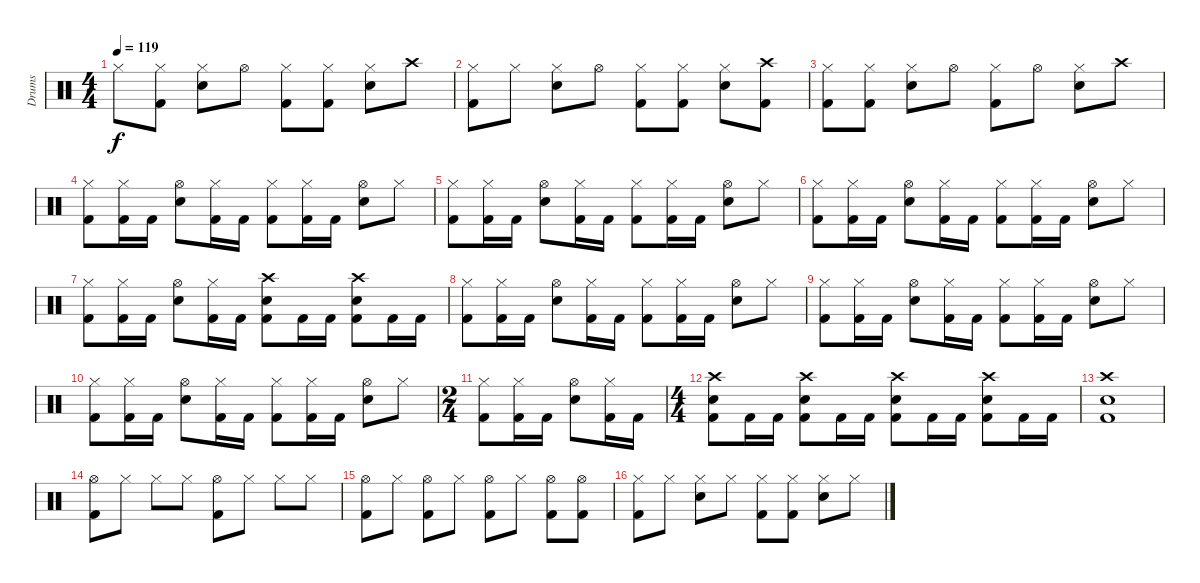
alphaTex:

\track ("Drums" "Drums") {instrument percussion}
\staff {score}
\articulation defaults
\ts (4 4)
\tempo 119
\clef neutral
\ks c "Hi-Hat (closed)".8{dy f}
("Hi-Hat (closed)" "Kick (hit) 2").8 ("Hi-Hat (closed)" "Snare (hit) 2").8 "Hi-Hat (open)".8 ("Hi-Hat (closed)" "Kick (hit) 2").8 ("Hi-Hat (closed)" "Kick (hit) 2").8 ("Hi-Hat (closed)" "Snare (hit) 2").8 "Crash high (hit)".8 |
("Hi-Hat (closed)" "Kick (hit) 2").8 "Hi-Hat (closed)".8 ("Hi-Hat (closed)" "Snare (hit) 2").8 "Hi-Hat (open)".8 ("Hi-Hat (closed)" "Kick (hit) 2").8 ("Hi-Hat (closed)" "Kick (hit) 2").8 ("Hi-Hat (closed)" "Snare (hit) 2").8 ("Crash high (hit)" "Kick (hit) 2").8 |
("Hi-Hat (closed)" "Kick (hit) 2").8 ("Hi-Hat (closed)" "Kick (hit) 2").8 ("Hi-Hat (closed)" "Snare (hit) 2").8 "Hi-Hat (open)".8 ("Hi-Hat (closed)" "Kick (hit) 2").8 "Hi-Hat (open)".8 ("Hi-Hat (closed)" "Snare (hit) 2").8 "Crash high (hit)".8 |
("Hi-Hat (closed)" "Kick (hit) 2").8 ("Hi-Hat (closed)" "Kick (hit) 2").16 "Kick (hit) 2".16 ("Hi-Hat (open)" "Snare (hit) 2").8 ("Hi-Hat (closed)" "Kick (hit) 2").16 "Kick (hit) 2".16 ("Hi-Hat (closed)" "Kick (hit) 2").8 ("Hi-Hat (closed)" "Kick (hit) 2").16 "Kick (hit) 2".16 ("Hi-Hat (open)" "Snare (hit) 2").8 "Hi-Hat (closed)".8 |
("Hi-Hat (closed)" "Kick (hit) 2").8 ("Hi-Hat (closed)" "Kick (hit) 2").16 "Kick (hit) 2".16 ("Hi-Hat (open)" "Snare (hit) 2").8 ("Hi-Hat (closed)" "Kick (hit) 2").16 "Kick (hit) 2".16 ("Hi-Hat (closed)" "Kick (hit) 2").8 ("Hi-Hat (closed)" "Kick (hit) 2").16 "Kick (hit) 2".16 ("Hi-Hat (open)" "Snare (hit) 2").8 "Hi-Hat (closed)".8 |
("Hi-Hat (closed)" "Kick (hit) 2").8 ("Hi-Hat (closed)" "Kick (hit) 2").16 "Kick (hit) 2".16 ("Hi-Hat (open)" "Snare (hit) 2").8 ("Hi-Hat (closed)" "Kick (hit) 2").16 "Kick (hit) 2".16 ("Hi-Hat (closed)" "Kick (hit) 2").8 ("Hi-Hat (closed)" "Kick (hit) 2").16 "Kick (hit) 2".16 ("Hi-Hat (open)" "Snare (hit) 2").8 "Hi-Hat (closed)".8 |
("Hi-Hat (closed)" "Kick (hit) 2").8 ("Hi-Hat (closed)" "Kick (hit) 2").16 "Kick (hit) 2".16 ("Hi-Hat (open)" "Snare (hit) 2").8 ("Hi-Hat (closed)" "Kick (hit) 2").16 "Kick (hit) 2".16 ("Crash high (hit)" "Kick (hit) 2" "Snare (hit) 2").8 "Kick (hit) 2".16 "Kick (hit) 2".16 ("Crash high (hit)" "Kick (hit) 2" "Snare (hit) 2").8 "Kick (hit) 2".16 "Kick (hit) 2".16 |
("Hi-Hat (closed)" "Kick (hit) 2").8 ("Hi-Hat (closed)" "Kick (hit) 2").16 "Kick (hit) 2".16 ("Hi-Hat (open)" "Snare (hit) 2").8 ("Hi-Hat (closed)" "Kick (hit) 2").16 "Kick (hit) 2".16 ("Hi-Hat (closed)" "Kick (hit) 2").8 ("Hi-Hat (closed)" "Kick (hit) 2").16 "Kick (hit) 2".16 ("Hi-Hat (open)" "Snare (hit) 2").8 "Hi-Hat (closed)".8 |
("Hi-Hat (closed)" "Kick (hit) 2").8 ("Hi-Hat (closed)" "Kick (hit) 2").16 "Kick (hit) 2".16 ("Hi-Hat (open)" "Snare (hit) 2").8 ("Hi-Hat (closed)" "Kick (hit) 2").16 "Kick (hit) 2".16 ("Hi-Hat (closed)" "Kick (hit) 2").8 ("Hi-Hat (closed)" "Kick (hit) 2").16 "Kick (hit) 2".16 ("Hi-Hat (open)" "Snare (hit) 2").8 "Hi-Hat (closed)".8 |
("Hi-Hat (closed)" "Kick (hit) 2").8 ("Hi-Hat (closed)" "Kick (hit) 2").16 "Kick (hit) 2".16 ("Hi-Hat (open)" "Snare (hit) 2").8 ("Hi-Hat (closed)" "Kick (hit) 2").16 "Kick (hit) 2".16 ("Hi-Hat (closed)" "Kick (hit) 2").8 ("Hi-Hat (closed)" "Kick (hit) 2").16 "Kick (hit) 2".16 ("Hi-Hat (open)" "Snare (hit) 2").8 "Hi-Hat (closed)".8 |
\ts (2 4)
("Hi-Hat (closed)" "Kick (hit) 2").8 ("Hi-Hat (closed)" "Kick (hit) 2").16 "Kick (hit) 2".16 ("Hi-Hat (open)" "Snare (hit) 2").8 ("Hi-Hat (closed)" "Kick (hit) 2").16 "Kick (hit) 2".16 |
\ts (4 4)
("Crash high (hit)" "Kick (hit) 2" "Snare (hit) 2").8 "Kick (hit) 2".16 "Kick (hit) 2".16 ("Crash high (hit)" "Kick (hit) 2" "Snare (hit) 2").8 "Kick (hit) 2".16 "Kick (hit) 2".16 ("Crash high (hit)" "Kick (hit) 2" "Snare (hit) 2").8 "Kick (hit) 2".16 "Kick (hit) 2".16 ("Crash high (hit)" "Kick (hit) 2" "Snare (hit) 2").8 "Kick (hit) 2".16 "Kick (hit) 2".16 |
("Crash high (hit)" "Kick (hit) 2" "Snare (hit) 2").1 |
("Hi-Hat (open)" "Kick (hit) 2").8 "Hi-Hat (closed)".8 "Hi-Hat (closed)".8 "Hi-Hat (closed)".8 ("Hi-Hat (open)" "Kick (hit) 2").8 "Hi-Hat (closed)".8 "Hi-Hat (closed)".8 "Hi-Hat (closed)".8 |
("Hi-Hat (open)" "Kick (hit) 2").8 "Hi-Hat (closed)".8 ("Hi-Hat (open)" "Kick (hit) 2").8 "Hi-Hat (closed)".8 ("Hi-Hat (open)" "Kick (hit) 2").8 "Hi-Hat (closed)".8 ("Hi-Hat (open)" "Kick (hit) 2").8 ("Hi-Hat (open)" "Kick (hit) 2").8 |
("Hi-Hat (closed)" "Kick (hit) 2").8 "Hi-Hat (closed)".8 ("Hi-Hat (closed)" "Snare (hit) 2").8 "Hi-Hat (closed)".8 ("Hi-Hat (closed)" "Kick (hit) 2").8 ("Hi-Hat (closed)" "Kick (hit) 2").8 ("Hi-Hat (closed)" "Snare (hit) 2").8 "Hi-Hat (closed)".8
